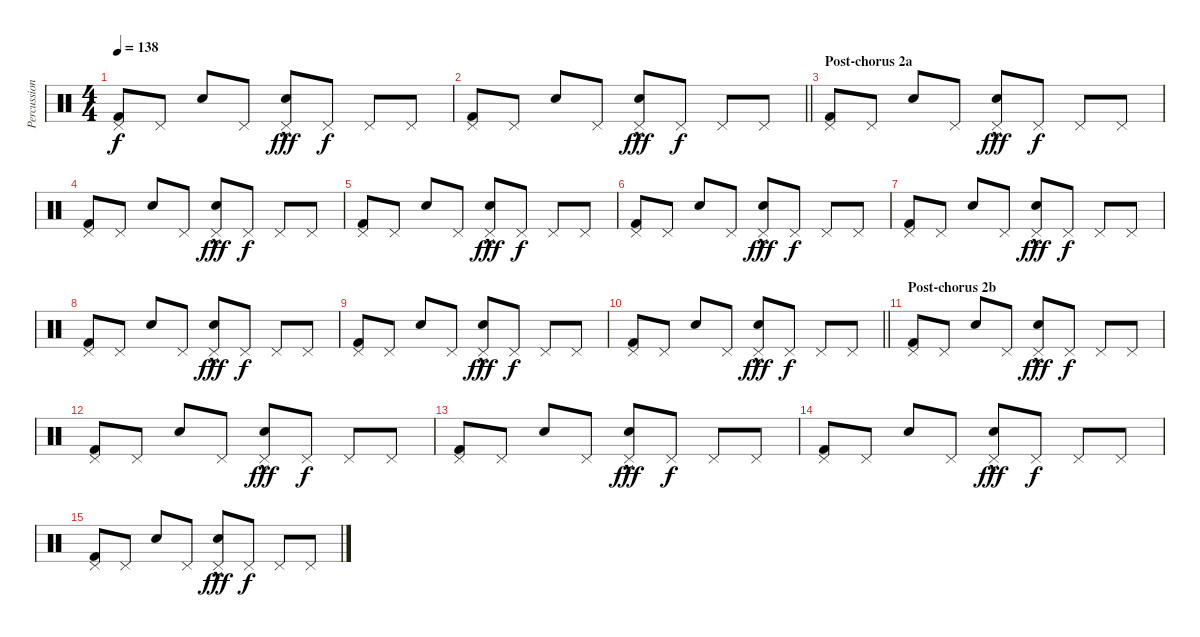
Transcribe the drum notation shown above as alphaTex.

\track ("Percussion" "Percussion") {instrument percussion}
\staff {score}
\articulation defaults
\ts (4 4)
\tempo 138
\clef neutral
\ks c
("Kick (hit) 2" "Pedal Hi-Hat (hit)").8{dy f} "Pedal Hi-Hat (hit)".8 "Snare (hit)".8 "Pedal Hi-Hat (hit)".8 ("Snare (hit) 2"{hac} "Pedal Hi-Hat (hit)").8{dy fff} "Pedal Hi-Hat (hit)".8{dy f} "Pedal Hi-Hat (hit)".8 "Pedal Hi-Hat (hit)".8 |
\barLineRight lightlight
("Kick (hit) 2" "Pedal Hi-Hat (hit)").8 "Pedal Hi-Hat (hit)".8 "Snare (hit)".8 "Pedal Hi-Hat (hit)".8 ("Snare (hit) 2"{hac} "Pedal Hi-Hat (hit)").8{dy fff} "Pedal Hi-Hat (hit)".8{dy f} "Pedal Hi-Hat (hit)".8 "Pedal Hi-Hat (hit)".8 |
\section ("" "Post-chorus 2a")
("Kick (hit) 2" "Pedal Hi-Hat (hit)").8 "Pedal Hi-Hat (hit)".8 "Snare (hit)".8 "Pedal Hi-Hat (hit)".8 ("Snare (hit) 2"{hac} "Pedal Hi-Hat (hit)").8{dy fff} "Pedal Hi-Hat (hit)".8{dy f} "Pedal Hi-Hat (hit)".8 "Pedal Hi-Hat (hit)".8 |
("Kick (hit) 2" "Pedal Hi-Hat (hit)").8 "Pedal Hi-Hat (hit)".8 "Snare (hit)".8 "Pedal Hi-Hat (hit)".8 ("Snare (hit) 2"{hac} "Pedal Hi-Hat (hit)").8{dy fff} "Pedal Hi-Hat (hit)".8{dy f} "Pedal Hi-Hat (hit)".8 "Pedal Hi-Hat (hit)".8 |
("Kick (hit) 2" "Pedal Hi-Hat (hit)").8 "Pedal Hi-Hat (hit)".8 "Snare (hit)".8 "Pedal Hi-Hat (hit)".8 ("Snare (hit) 2"{hac} "Pedal Hi-Hat (hit)").8{dy fff} "Pedal Hi-Hat (hit)".8{dy f} "Pedal Hi-Hat (hit)".8 "Pedal Hi-Hat (hit)".8 |
("Kick (hit) 2" "Pedal Hi-Hat (hit)").8 "Pedal Hi-Hat (hit)".8 "Snare (hit)".8 "Pedal Hi-Hat (hit)".8 ("Snare (hit) 2"{hac} "Pedal Hi-Hat (hit)").8{dy fff} "Pedal Hi-Hat (hit)".8{dy f} "Pedal Hi-Hat (hit)".8 "Pedal Hi-Hat (hit)".8 |
("Kick (hit) 2" "Pedal Hi-Hat (hit)").8 "Pedal Hi-Hat (hit)".8 "Snare (hit)".8 "Pedal Hi-Hat (hit)".8 ("Snare (hit) 2"{hac} "Pedal Hi-Hat (hit)").8{dy fff} "Pedal Hi-Hat (hit)".8{dy f} "Pedal Hi-Hat (hit)".8 "Pedal Hi-Hat (hit)".8 |
("Kick (hit) 2" "Pedal Hi-Hat (hit)").8 "Pedal Hi-Hat (hit)".8 "Snare (hit)".8 "Pedal Hi-Hat (hit)".8 ("Snare (hit) 2"{hac} "Pedal Hi-Hat (hit)").8{dy fff} "Pedal Hi-Hat (hit)".8{dy f} "Pedal Hi-Hat (hit)".8 "Pedal Hi-Hat (hit)".8 |
("Kick (hit) 2" "Pedal Hi-Hat (hit)").8 "Pedal Hi-Hat (hit)".8 "Snare (hit)".8 "Pedal Hi-Hat (hit)".8 ("Snare (hit) 2"{hac} "Pedal Hi-Hat (hit)").8{dy fff} "Pedal Hi-Hat (hit)".8{dy f} "Pedal Hi-Hat (hit)".8 "Pedal Hi-Hat (hit)".8 |
\barLineRight lightlight
("Kick (hit) 2" "Pedal Hi-Hat (hit)").8 "Pedal Hi-Hat (hit)".8 "Snare (hit)".8 "Pedal Hi-Hat (hit)".8 ("Snare (hit) 2"{hac} "Pedal Hi-Hat (hit)").8{dy fff} "Pedal Hi-Hat (hit)".8{dy f} "Pedal Hi-Hat (hit)".8 "Pedal Hi-Hat (hit)".8 |
\section ("" "Post-chorus 2b")
("Kick (hit) 2" "Pedal Hi-Hat (hit)").8 "Pedal Hi-Hat (hit)".8 "Snare (hit)".8 "Pedal Hi-Hat (hit)".8 ("Snare (hit) 2"{hac} "Pedal Hi-Hat (hit)").8{dy fff} "Pedal Hi-Hat (hit)".8{dy f} "Pedal Hi-Hat (hit)".8 "Pedal Hi-Hat (hit)".8 |
("Kick (hit) 2" "Pedal Hi-Hat (hit)").8 "Pedal Hi-Hat (hit)".8 "Snare (hit)".8 "Pedal Hi-Hat (hit)".8 ("Snare (hit) 2"{hac} "Pedal Hi-Hat (hit)").8{dy fff} "Pedal Hi-Hat (hit)".8{dy f} "Pedal Hi-Hat (hit)".8 "Pedal Hi-Hat (hit)".8 |
("Kick (hit) 2" "Pedal Hi-Hat (hit)").8 "Pedal Hi-Hat (hit)".8 "Snare (hit)".8 "Pedal Hi-Hat (hit)".8 ("Snare (hit) 2"{hac} "Pedal Hi-Hat (hit)").8{dy fff} "Pedal Hi-Hat (hit)".8{dy f} "Pedal Hi-Hat (hit)".8 "Pedal Hi-Hat (hit)".8 |
("Kick (hit) 2" "Pedal Hi-Hat (hit)").8 "Pedal Hi-Hat (hit)".8 "Snare (hit)".8 "Pedal Hi-Hat (hit)".8 ("Snare (hit) 2"{hac} "Pedal Hi-Hat (hit)").8{dy fff} "Pedal Hi-Hat (hit)".8{dy f} "Pedal Hi-Hat (hit)".8 "Pedal Hi-Hat (hit)".8 |
("Kick (hit) 2" "Pedal Hi-Hat (hit)").8 "Pedal Hi-Hat (hit)".8 "Snare (hit)".8 "Pedal Hi-Hat (hit)".8 ("Snare (hit) 2"{hac} "Pedal Hi-Hat (hit)").8{dy fff} "Pedal Hi-Hat (hit)".8{dy f} "Pedal Hi-Hat (hit)".8 "Pedal Hi-Hat (hit)".8
